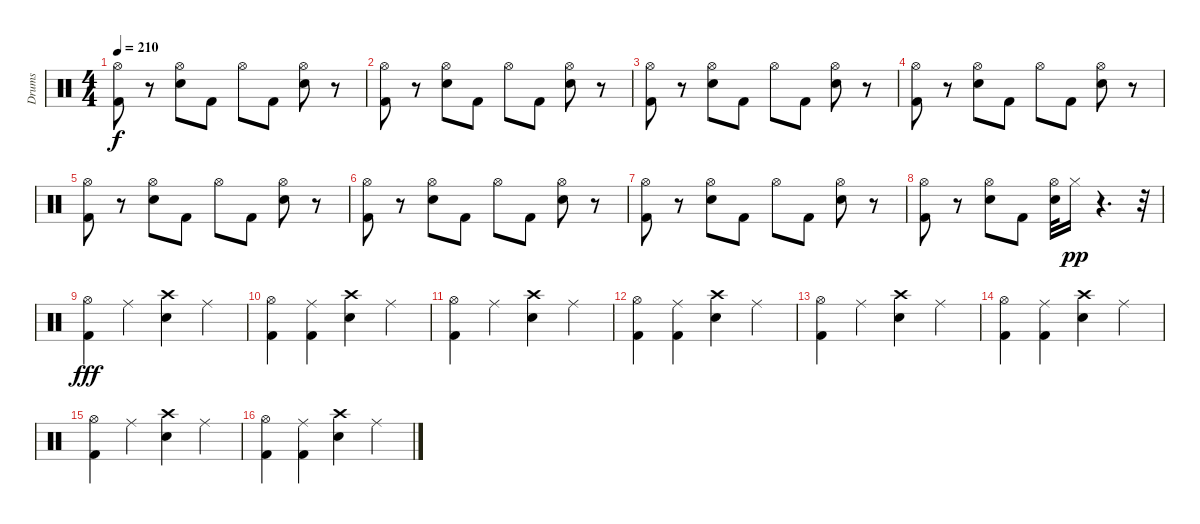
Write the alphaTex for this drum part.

\track ("Drums" "Drums") {instrument percussion}
\staff {score}
\articulation defaults
\ts (4 4)
\tempo 210
\clef neutral
\ks c
("Hi-Hat (open)" "Kick (hit) 2").8{dy f} r.8 ("Hi-Hat (open)" "Electric Snare (hit)").8 "Kick (hit) 2".8 "Hi-Hat (open)".8 "Kick (hit) 2".8 ("Hi-Hat (open)" "Electric Snare (hit)").8 r.8 |
("Hi-Hat (open)" "Kick (hit) 2").8 r.8 ("Hi-Hat (open)" "Electric Snare (hit)").8 "Kick (hit) 2".8 "Hi-Hat (open)".8 "Kick (hit) 2".8 ("Hi-Hat (open)" "Electric Snare (hit)").8 r.8 |
("Hi-Hat (open)" "Kick (hit) 2").8 r.8 ("Hi-Hat (open)" "Electric Snare (hit)").8 "Kick (hit) 2".8 "Hi-Hat (open)".8 "Kick (hit) 2".8 ("Hi-Hat (open)" "Electric Snare (hit)").8 r.8 |
("Hi-Hat (open)" "Kick (hit) 2").8 r.8 ("Hi-Hat (open)" "Electric Snare (hit)").8 "Kick (hit) 2".8 "Hi-Hat (open)".8 "Kick (hit) 2".8 ("Hi-Hat (open)" "Electric Snare (hit)").8 r.8 |
("Hi-Hat (open)" "Kick (hit) 2").8 r.8 ("Hi-Hat (open)" "Electric Snare (hit)").8 "Kick (hit) 2".8 "Hi-Hat (open)".8 "Kick (hit) 2".8 ("Hi-Hat (open)" "Electric Snare (hit)").8 r.8 |
("Hi-Hat (open)" "Kick (hit) 2").8 r.8 ("Hi-Hat (open)" "Electric Snare (hit)").8 "Kick (hit) 2".8 "Hi-Hat (open)".8 "Kick (hit) 2".8 ("Hi-Hat (open)" "Electric Snare (hit)").8 r.8 |
("Hi-Hat (open)" "Kick (hit) 2").8 r.8 ("Hi-Hat (open)" "Electric Snare (hit)").8 "Kick (hit) 2".8 "Hi-Hat (open)".8 "Kick (hit) 2".8 ("Hi-Hat (open)" "Electric Snare (hit)").8 r.8 |
("Hi-Hat (open)" "Kick (hit) 2").8 r.8 ("Hi-Hat (open)" "Electric Snare (hit)").8 "Kick (hit) 2".8 ("Hi-Hat (open)" "Electric Snare (hit)").32 "Hi-Hat (closed)".16{dy pp} r.4{d} r.32 |
("Hi-Hat (open)" "Kick (hit) 2").4{dy fff} "Ride (middle)".4 ("Crash high (hit)" "Electric Snare (hit)").4 "Ride (middle)".4 |
("Hi-Hat (open)" "Kick (hit) 2").4 ("Ride (middle)" "Kick (hit) 2").4 ("Crash high (hit)" "Electric Snare (hit)").4 "Ride (middle)".4 |
("Hi-Hat (open)" "Kick (hit) 2").4 "Ride (middle)".4 ("Crash high (hit)" "Electric Snare (hit)").4 "Ride (middle)".4 |
("Hi-Hat (open)" "Kick (hit) 2").4 ("Ride (middle)" "Kick (hit) 2").4 ("Crash high (hit)" "Electric Snare (hit)").4 "Ride (middle)".4 |
("Hi-Hat (open)" "Kick (hit) 2").4 "Ride (middle)".4 ("Crash high (hit)" "Electric Snare (hit)").4 "Ride (middle)".4 |
("Hi-Hat (open)" "Kick (hit) 2").4 ("Ride (middle)" "Kick (hit) 2").4 ("Crash high (hit)" "Electric Snare (hit)").4 "Ride (middle)".4 |
("Hi-Hat (open)" "Kick (hit) 2").4 "Ride (middle)".4 ("Crash high (hit)" "Electric Snare (hit)").4 "Ride (middle)".4 |
("Hi-Hat (open)" "Kick (hit) 2").4 ("Ride (middle)" "Kick (hit) 2").4 ("Crash high (hit)" "Electric Snare (hit)").4 "Ride (middle)".4
